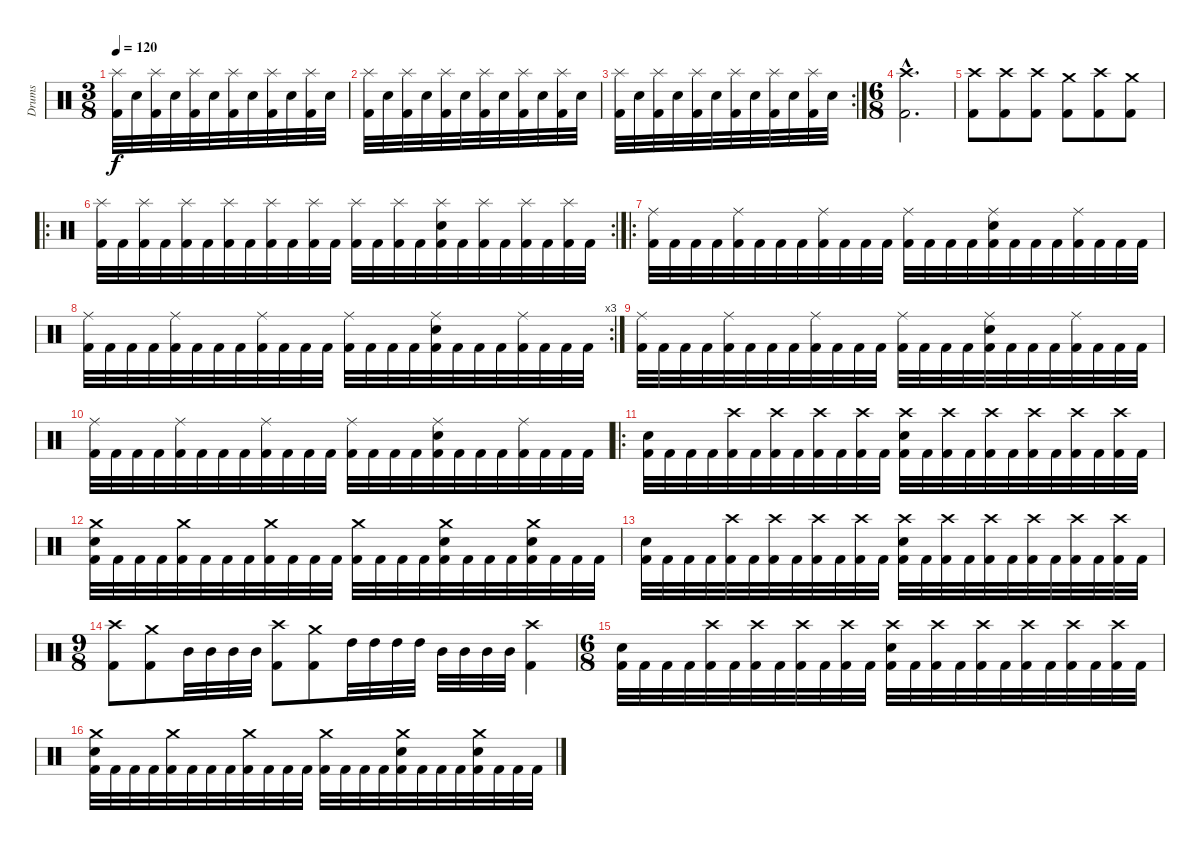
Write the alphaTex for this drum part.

\track ("Drums" "Drums") {instrument percussion}
\staff {score}
\articulation defaults
\ts (3 8)
\tempo 120
\clef neutral
\ks c
("Splash (hit)" "Kick (hit) 2").32{dy f} "Snare (hit) 2".32 ("Splash (hit)" "Kick (hit) 2").32 "Snare (hit) 2".32 ("Splash (hit)" "Kick (hit) 2").32 "Snare (hit) 2".32 ("Splash (hit)" "Kick (hit) 2").32 "Snare (hit) 2".32 ("Splash (hit)" "Kick (hit) 2").32 "Snare (hit) 2".32 ("Splash (hit)" "Kick (hit) 2").32 "Snare (hit) 2".32 |
("Splash (hit)" "Kick (hit) 2").32 "Snare (hit) 2".32 ("Splash (hit)" "Kick (hit) 2").32 "Snare (hit) 2".32 ("Splash (hit)" "Kick (hit) 2").32 "Snare (hit) 2".32 ("Splash (hit)" "Kick (hit) 2").32 "Snare (hit) 2".32 ("Splash (hit)" "Kick (hit) 2").32 "Snare (hit) 2".32 ("Splash (hit)" "Kick (hit) 2").32 "Snare (hit) 2".32 |
\rc 2
("Splash (hit)" "Kick (hit) 2").32 "Snare (hit) 2".32 ("Splash (hit)" "Kick (hit) 2").32 "Snare (hit) 2".32 ("Splash (hit)" "Kick (hit) 2").32 "Snare (hit) 2".32 ("Splash (hit)" "Kick (hit) 2").32 "Snare (hit) 2".32 ("Splash (hit)" "Kick (hit) 2").32 "Snare (hit) 2".32 ("Splash (hit)" "Kick (hit) 2").32 "Snare (hit) 2".32 |
\ts (6 8)
("Crash high (hit)"{hac} "Kick (hit) 2"{hac}).2{d} |
("Crash high (hit)" "Kick (hit) 2").8 ("Crash high (hit)" "Kick (hit) 2").8 ("Crash high (hit)" "Kick (hit) 2").8 ("Crash medium (hit)" "Kick (hit) 2").8 ("Crash high (hit)" "Kick (hit) 2").8 ("Crash medium (hit)" "Kick (hit) 2").8 |
\ro
\rc 2
("Splash (hit)" "Kick (hit) 2").32 "Kick (hit) 2".32 ("Splash (hit)" "Kick (hit) 2").32 "Kick (hit) 2".32 ("Splash (hit)" "Kick (hit) 2").32 "Kick (hit) 2".32 ("Splash (hit)" "Kick (hit) 2").32 "Kick (hit) 2".32 ("Splash (hit)" "Kick (hit) 2").32 "Kick (hit) 2".32 ("Splash (hit)" "Kick (hit) 2").32 "Kick (hit) 2".32 ("Splash (hit)" "Kick (hit) 2").32 "Kick (hit) 2".32 ("Splash (hit)" "Kick (hit) 2").32 "Kick (hit) 2".32 ("Splash (hit)" "Snare (hit) 2" "Kick (hit) 2").32 "Kick (hit) 2".32 ("Splash (hit)" "Kick (hit) 2").32 "Kick (hit) 2".32 ("Splash (hit)" "Kick (hit) 2").32 "Kick (hit) 2".32 ("Splash (hit)" "Kick (hit) 2").32 "Kick (hit) 2".32 |
\ro
("Ride (middle)" "Kick (hit) 2").32 "Kick (hit) 2".32 "Kick (hit) 2".32 "Kick (hit) 2".32 ("Ride (middle)" "Kick (hit) 2").32 "Kick (hit) 2".32 "Kick (hit) 2".32 "Kick (hit) 2".32 ("Ride (middle)" "Kick (hit) 2").32 "Kick (hit) 2".32 "Kick (hit) 2".32 "Kick (hit) 2".32 ("Ride (middle)" "Kick (hit) 2").32 "Kick (hit) 2".32 "Kick (hit) 2".32 "Kick (hit) 2".32 ("Ride (middle)" "Snare (hit) 2" "Kick (hit) 2").32 "Kick (hit) 2".32 "Kick (hit) 2".32 "Kick (hit) 2".32 ("Ride (middle)" "Kick (hit) 2").32 "Kick (hit) 2".32 "Kick (hit) 2".32 "Kick (hit) 2".32 |
\rc 3
("Ride (middle)" "Kick (hit) 2").32 "Kick (hit) 2".32 "Kick (hit) 2".32 "Kick (hit) 2".32 ("Ride (middle)" "Kick (hit) 2").32 "Kick (hit) 2".32 "Kick (hit) 2".32 "Kick (hit) 2".32 ("Ride (middle)" "Kick (hit) 2").32 "Kick (hit) 2".32 "Kick (hit) 2".32 "Kick (hit) 2".32 ("Ride (middle)" "Kick (hit) 2").32 "Kick (hit) 2".32 "Kick (hit) 2".32 "Kick (hit) 2".32 ("Ride (middle)" "Snare (hit) 2" "Kick (hit) 2").32 "Kick (hit) 2".32 "Kick (hit) 2".32 "Kick (hit) 2".32 ("Ride (middle)" "Kick (hit) 2").32 "Kick (hit) 2".32 "Kick (hit) 2".32 "Kick (hit) 2".32 |
("Ride (middle)" "Kick (hit) 2").32 "Kick (hit) 2".32 "Kick (hit) 2".32 "Kick (hit) 2".32 ("Ride (middle)" "Kick (hit) 2").32 "Kick (hit) 2".32 "Kick (hit) 2".32 "Kick (hit) 2".32 ("Ride (middle)" "Kick (hit) 2").32 "Kick (hit) 2".32 "Kick (hit) 2".32 "Kick (hit) 2".32 ("Ride (middle)" "Kick (hit) 2").32 "Kick (hit) 2".32 "Kick (hit) 2".32 "Kick (hit) 2".32 ("Ride (middle)" "Snare (hit) 2" "Kick (hit) 2").32 "Kick (hit) 2".32 "Kick (hit) 2".32 "Kick (hit) 2".32 ("Ride (middle)" "Kick (hit) 2").32 "Kick (hit) 2".32 "Kick (hit) 2".32 "Kick (hit) 2".32 |
("Ride (middle)" "Kick (hit) 2").32 "Kick (hit) 2".32 "Kick (hit) 2".32 "Kick (hit) 2".32 ("Ride (middle)" "Kick (hit) 2").32 "Kick (hit) 2".32 "Kick (hit) 2".32 "Kick (hit) 2".32 ("Ride (middle)" "Kick (hit) 2").32 "Kick (hit) 2".32 "Kick (hit) 2".32 "Kick (hit) 2".32 ("Ride (middle)" "Kick (hit) 2").32 "Kick (hit) 2".32 "Kick (hit) 2".32 "Kick (hit) 2".32 ("Ride (middle)" "Snare (hit) 2" "Kick (hit) 2").32 "Kick (hit) 2".32 "Kick (hit) 2".32 "Kick (hit) 2".32 ("Ride (middle)" "Kick (hit) 2").32 "Kick (hit) 2".32 "Kick (hit) 2".32 "Kick (hit) 2".32 |
\ro
("Snare (hit) 2" "Kick (hit) 2").32 "Kick (hit) 2".32 "Kick (hit) 2".32 "Kick (hit) 2".32 ("Crash high (hit)" "Kick (hit) 2").32 "Kick (hit) 2".32 ("Crash high (hit)" "Kick (hit) 2").32 "Kick (hit) 2".32 ("Crash high (hit)" "Kick (hit) 2").32 "Kick (hit) 2".32 ("Crash high (hit)" "Kick (hit) 2").32 "Kick (hit) 2".32 ("Crash high (hit)" "Snare (hit) 2" "Kick (hit) 2").32 "Kick (hit) 2".32 ("Crash high (hit)" "Kick (hit) 2").32 "Kick (hit) 2".32 ("Crash high (hit)" "Kick (hit) 2").32 "Kick (hit) 2".32 ("Crash high (hit)" "Kick (hit) 2").32 "Kick (hit) 2".32 ("Crash high (hit)" "Kick (hit) 2").32 "Kick (hit) 2".32 ("Crash high (hit)" "Kick (hit) 2").32 "Kick (hit) 2".32 |
("Crash medium (hit)" "Snare (hit) 2" "Kick (hit) 2").32 "Kick (hit) 2".32 "Kick (hit) 2".32 "Kick (hit) 2".32 ("Crash medium (hit)" "Kick (hit) 2").32 "Kick (hit) 2".32 "Kick (hit) 2".32 "Kick (hit) 2".32 ("Crash medium (hit)" "Kick (hit) 2").32 "Kick (hit) 2".32 "Kick (hit) 2".32 "Kick (hit) 2".32 ("Crash medium (hit)" "Kick (hit) 2").32 "Kick (hit) 2".32 "Kick (hit) 2".32 "Kick (hit) 2".32 ("Crash medium (hit)" "Snare (hit) 2" "Kick (hit) 2").32 "Kick (hit) 2".32 "Kick (hit) 2".32 "Kick (hit) 2".32 ("Crash medium (hit)" "Snare (hit) 2" "Kick (hit) 2").32 "Kick (hit) 2".32 "Kick (hit) 2".32 "Kick (hit) 2".32 |
("Snare (hit) 2" "Kick (hit) 2").32 "Kick (hit) 2".32 "Kick (hit) 2".32 "Kick (hit) 2".32 ("Crash high (hit)" "Kick (hit) 2").32 "Kick (hit) 2".32 ("Crash high (hit)" "Kick (hit) 2").32 "Kick (hit) 2".32 ("Crash high (hit)" "Kick (hit) 2").32 "Kick (hit) 2".32 ("Crash high (hit)" "Kick (hit) 2").32 "Kick (hit) 2".32 ("Crash high (hit)" "Snare (hit) 2" "Kick (hit) 2").32 "Kick (hit) 2".32 ("Crash high (hit)" "Kick (hit) 2").32 "Kick (hit) 2".32 ("Crash high (hit)" "Kick (hit) 2").32 "Kick (hit) 2".32 ("Crash high (hit)" "Kick (hit) 2").32 "Kick (hit) 2".32 ("Crash high (hit)" "Kick (hit) 2").32 "Kick (hit) 2".32 ("Crash high (hit)" "Kick (hit) 2").32 "Kick (hit) 2".32 |
\ts (9 8)
("Crash high (hit)" "Kick (hit) 2").8 ("Crash medium (hit)" "Kick (hit) 2").8 "Mid Tom (hit)".32 "Mid Tom (hit)".32 "Mid Tom (hit)".32 "Mid Tom (hit)".32 ("Crash high (hit)" "Kick (hit) 2").8 ("Crash medium (hit)" "Kick (hit) 2").8 "High Tom (hit)".32 "High Tom (hit)".32 "High Tom (hit)".32 "High Tom (hit)".32 "Mid Tom (hit)".32 "Mid Tom (hit)".32 "Mid Tom (hit)".32 "Mid Tom (hit)".32 ("Crash high (hit)" "Kick (hit) 2").4 |
\ts (6 8)
("Snare (hit) 2" "Kick (hit) 2").32 "Kick (hit) 2".32 "Kick (hit) 2".32 "Kick (hit) 2".32 ("Crash high (hit)" "Kick (hit) 2").32 "Kick (hit) 2".32 ("Crash high (hit)" "Kick (hit) 2").32 "Kick (hit) 2".32 ("Crash high (hit)" "Kick (hit) 2").32 "Kick (hit) 2".32 ("Crash high (hit)" "Kick (hit) 2").32 "Kick (hit) 2".32 ("Crash high (hit)" "Snare (hit) 2" "Kick (hit) 2").32 "Kick (hit) 2".32 ("Crash high (hit)" "Kick (hit) 2").32 "Kick (hit) 2".32 ("Crash high (hit)" "Kick (hit) 2").32 "Kick (hit) 2".32 ("Crash high (hit)" "Kick (hit) 2").32 "Kick (hit) 2".32 ("Crash high (hit)" "Kick (hit) 2").32 "Kick (hit) 2".32 ("Crash high (hit)" "Kick (hit) 2").32 "Kick (hit) 2".32 |
("Crash medium (hit)" "Snare (hit) 2" "Kick (hit) 2").32 "Kick (hit) 2".32 "Kick (hit) 2".32 "Kick (hit) 2".32 ("Crash medium (hit)" "Kick (hit) 2").32 "Kick (hit) 2".32 "Kick (hit) 2".32 "Kick (hit) 2".32 ("Crash medium (hit)" "Kick (hit) 2").32 "Kick (hit) 2".32 "Kick (hit) 2".32 "Kick (hit) 2".32 ("Crash medium (hit)" "Kick (hit) 2").32 "Kick (hit) 2".32 "Kick (hit) 2".32 "Kick (hit) 2".32 ("Crash medium (hit)" "Snare (hit) 2" "Kick (hit) 2").32 "Kick (hit) 2".32 "Kick (hit) 2".32 "Kick (hit) 2".32 ("Crash medium (hit)" "Snare (hit) 2" "Kick (hit) 2").32 "Kick (hit) 2".32 "Kick (hit) 2".32 "Kick (hit) 2".32
